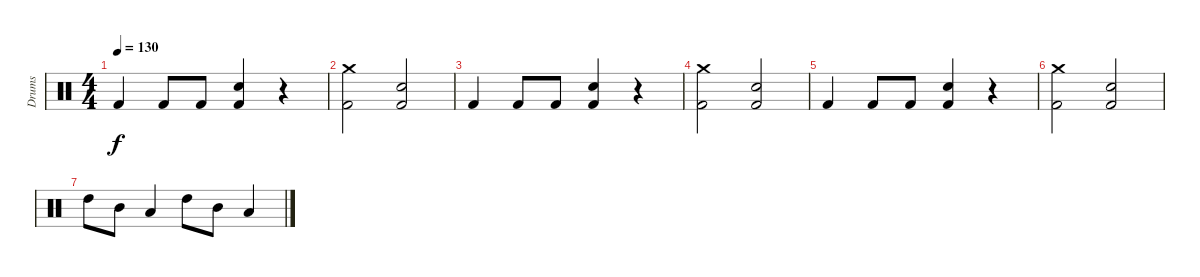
\track ("Drums" "Drums") {instrument percussion}
\staff {score}
\articulation defaults
\ts (4 4)
\tempo 130
\clef neutral
\ks c "Kick (hit) 2".4{dy f} "Kick (hit) 2".8 "Kick (hit) 2".8
("Kick (hit) 2" "Snare (hit) 2").4 r.4 |
("Crash medium (hit)" "Kick (hit) 2").2 ("Kick (hit) 2" "Snare (hit) 2").2 |
"Kick (hit) 2".4 "Kick (hit) 2".8 "Kick (hit) 2".8 ("Kick (hit) 2" "Snare (hit) 2").4 r.4 |
("Crash medium (hit)" "Kick (hit) 2").2 ("Kick (hit) 2" "Snare (hit) 2").2 |
"Kick (hit) 2".4 "Kick (hit) 2".8 "Kick (hit) 2".8 ("Kick (hit) 2" "Snare (hit) 2").4 r.4 |
("Crash medium (hit)" "Kick (hit) 2").2 ("Kick (hit) 2" "Snare (hit) 2").2 |
"High Tom (hit)".8 "Mid Tom (hit)".8 "Low Tom (hit)".4 "High Tom (hit)".8 "Mid Tom (hit)".8 "Low Tom (hit)".4
